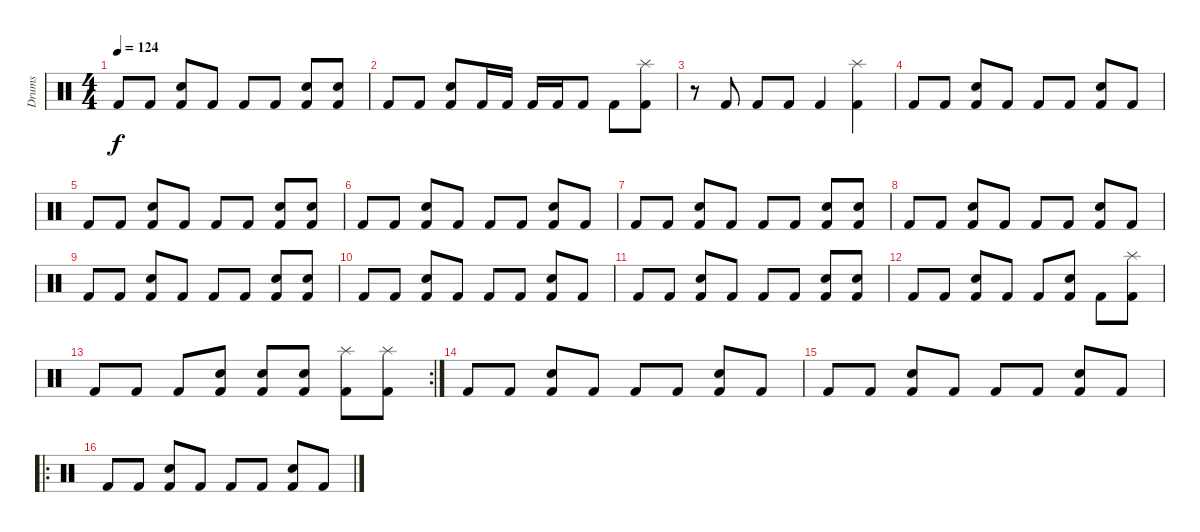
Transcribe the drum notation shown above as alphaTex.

\track ("Drums" "Drums") {instrument percussion}
\staff {score}
\articulation defaults
\ts (4 4)
\tempo 124
\clef neutral
\ks c "Kick (hit) 2".8{dy f} "Kick (hit) 2".8
("Kick (hit) 2" "Electric Snare (hit)").8 "Kick (hit) 2".8 "Kick (hit) 2".8 "Kick (hit) 2".8 ("Kick (hit) 2" "Electric Snare (hit)").8 ("Kick (hit) 2" "Electric Snare (hit)").8 |
"Kick (hit) 2".8 "Kick (hit) 2".8 ("Kick (hit) 2" "Electric Snare (hit)").8 "Kick (hit) 2".16 "Kick (hit) 2".16 "Kick (hit) 2".16 "Kick (hit) 2".16 "Kick (hit) 2".8 "Kick (hit) 2".8 ("Kick (hit) 2" "Splash (hit)").8 |
r.8 "Kick (hit) 2".8 "Kick (hit) 2".8 "Kick (hit) 2".8 "Kick (hit) 2".4 ("Kick (hit) 2" "Splash (hit)").4 |
"Kick (hit) 2".8 "Kick (hit) 2".8 ("Kick (hit) 2" "Electric Snare (hit)").8 "Kick (hit) 2".8 "Kick (hit) 2".8 "Kick (hit) 2".8 ("Kick (hit) 2" "Electric Snare (hit)").8 "Kick (hit) 2".8 |
"Kick (hit) 2".8 "Kick (hit) 2".8 ("Kick (hit) 2" "Electric Snare (hit)").8 "Kick (hit) 2".8 "Kick (hit) 2".8 "Kick (hit) 2".8 ("Kick (hit) 2" "Electric Snare (hit)").8 ("Kick (hit) 2" "Electric Snare (hit)").8 |
"Kick (hit) 2".8 "Kick (hit) 2".8 ("Kick (hit) 2" "Electric Snare (hit)").8 "Kick (hit) 2".8 "Kick (hit) 2".8 "Kick (hit) 2".8 ("Kick (hit) 2" "Electric Snare (hit)").8 "Kick (hit) 2".8 |
"Kick (hit) 2".8 "Kick (hit) 2".8 ("Kick (hit) 2" "Electric Snare (hit)").8 "Kick (hit) 2".8 "Kick (hit) 2".8 "Kick (hit) 2".8 ("Kick (hit) 2" "Electric Snare (hit)").8 ("Kick (hit) 2" "Electric Snare (hit)").8 |
"Kick (hit) 2".8 "Kick (hit) 2".8 ("Kick (hit) 2" "Electric Snare (hit)").8 "Kick (hit) 2".8 "Kick (hit) 2".8 "Kick (hit) 2".8 ("Kick (hit) 2" "Electric Snare (hit)").8 "Kick (hit) 2".8 |
"Kick (hit) 2".8 "Kick (hit) 2".8 ("Kick (hit) 2" "Electric Snare (hit)").8 "Kick (hit) 2".8 "Kick (hit) 2".8 "Kick (hit) 2".8 ("Kick (hit) 2" "Electric Snare (hit)").8 ("Kick (hit) 2" "Electric Snare (hit)").8 |
"Kick (hit) 2".8 "Kick (hit) 2".8 ("Kick (hit) 2" "Electric Snare (hit)").8 "Kick (hit) 2".8 "Kick (hit) 2".8 "Kick (hit) 2".8 ("Kick (hit) 2" "Electric Snare (hit)").8 "Kick (hit) 2".8 |
"Kick (hit) 2".8 "Kick (hit) 2".8 ("Kick (hit) 2" "Electric Snare (hit)").8 "Kick (hit) 2".8 "Kick (hit) 2".8 "Kick (hit) 2".8 ("Kick (hit) 2" "Electric Snare (hit)").8 ("Kick (hit) 2" "Electric Snare (hit)").8 |
"Kick (hit) 2".8 "Kick (hit) 2".8 ("Kick (hit) 2" "Electric Snare (hit)").8 "Kick (hit) 2".8 "Kick (hit) 2".8 ("Kick (hit) 2" "Electric Snare (hit)").8 "Kick (hit) 2".8 ("Kick (hit) 2" "Splash (hit)").8 |
\rc 2 "Kick (hit) 2".8 "Kick (hit) 2".8 "Kick (hit) 2".8
("Kick (hit) 2" "Electric Snare (hit)").8 ("Kick (hit) 2" "Electric Snare (hit)").8 ("Kick (hit) 2" "Electric Snare (hit)").8 ("Kick (hit) 2" "Splash (hit)").8 ("Kick (hit) 2" "Splash (hit)").8 |
"Kick (hit) 2".8 "Kick (hit) 2".8 ("Kick (hit) 2" "Electric Snare (hit)").8 "Kick (hit) 2".8 "Kick (hit) 2".8 "Kick (hit) 2".8 ("Kick (hit) 2" "Electric Snare (hit)").8 "Kick (hit) 2".8 |
"Kick (hit) 2".8 "Kick (hit) 2".8 ("Kick (hit) 2" "Electric Snare (hit)").8 "Kick (hit) 2".8 "Kick (hit) 2".8 "Kick (hit) 2".8 ("Kick (hit) 2" "Electric Snare (hit)").8 "Kick (hit) 2".8 |
\ro "Kick (hit) 2".8 "Kick (hit) 2".8
("Kick (hit) 2" "Electric Snare (hit)").8 "Kick (hit) 2".8 "Kick (hit) 2".8 "Kick (hit) 2".8 ("Kick (hit) 2" "Electric Snare (hit)").8 "Kick (hit) 2".8
